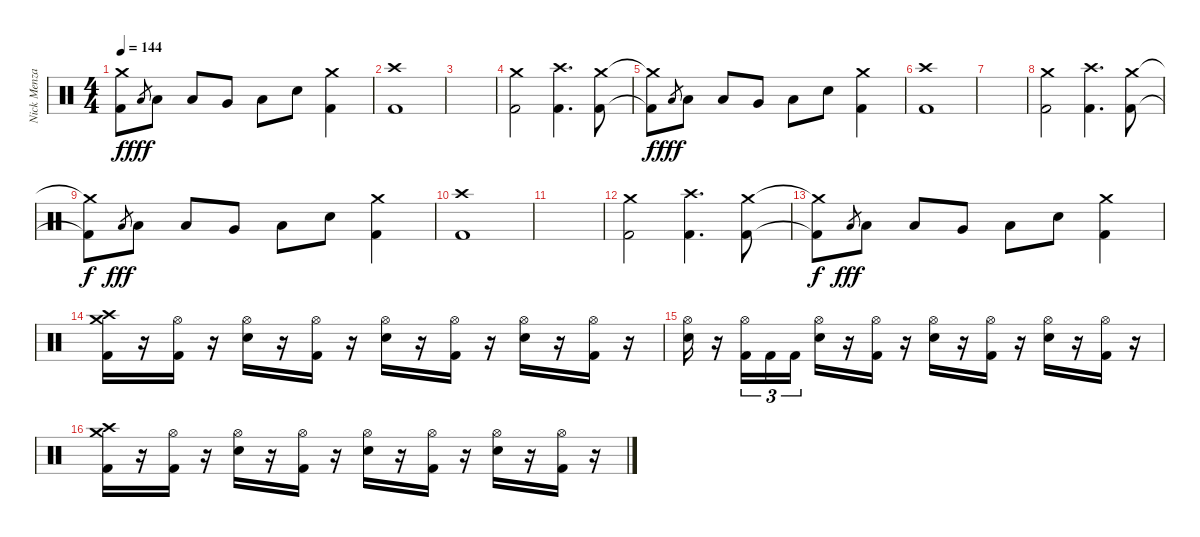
\track ("Nick Menza" "Nick Menza") {instrument percussion}
\staff {score}
\articulation defaults
\ts (4 4)
\tempo 144
\clef neutral
\ks c
("Kick (hit) 2"{t} "Crash medium (hit)"{t}).8{dy f} "Low Tom (hit)".8{gr dy fff} "Low Tom (hit)".8 "Low Tom (hit)".8 "Very Low Tom (hit)".8 "Low Floor Tom (hit)".8 "Electric Snare (hit)".8 ("Kick (hit) 2" "Crash medium (hit)").4 |
("Kick (hit) 2" "Crash high (hit)").1 |
|
("Kick (hit) 2" "Crash medium (hit)").2 ("Kick (hit) 2" "Crash high (hit)").4{d} ("Kick (hit) 2" "Crash medium (hit)").8 |
("Kick (hit) 2"{t} "Crash medium (hit)"{t}).8{dy f} "Low Tom (hit)".8{gr dy fff} "Low Tom (hit)".8 "Low Tom (hit)".8 "Very Low Tom (hit)".8 "Low Floor Tom (hit)".8 "Electric Snare (hit)".8 ("Kick (hit) 2" "Crash medium (hit)").4 |
("Kick (hit) 2" "Crash high (hit)").1 |
|
("Kick (hit) 2" "Crash medium (hit)").2 ("Kick (hit) 2" "Crash high (hit)").4{d} ("Kick (hit) 2" "Crash medium (hit)").8 |
("Kick (hit) 2"{t} "Crash medium (hit)"{t}).8{dy f} "Low Tom (hit)".8{gr dy fff} "Low Tom (hit)".8 "Low Tom (hit)".8 "Very Low Tom (hit)".8 "Low Floor Tom (hit)".8 "Electric Snare (hit)".8 ("Kick (hit) 2" "Crash medium (hit)").4 |
("Kick (hit) 2" "Crash high (hit)").1 |
|
("Kick (hit) 2" "Crash medium (hit)").2 ("Kick (hit) 2" "Crash high (hit)").4{d} ("Kick (hit) 2" "Crash medium (hit)").8 |
("Kick (hit) 2"{t} "Crash medium (hit)"{t}).8{dy f} "Low Tom (hit)".8{gr dy fff} "Low Tom (hit)".8 "Low Tom (hit)".8 "Very Low Tom (hit)".8 "Low Floor Tom (hit)".8 "Electric Snare (hit)".8 ("Kick (hit) 2" "Crash medium (hit)").4 |
("Kick (hit) 2" "Crash high (hit)" "Crash medium (hit)").16 r.16 ("Kick (hit) 2" "Hi-Hat (open)").16 r.16 ("Electric Snare (hit)" "Hi-Hat (open)").16 r.16 ("Kick (hit) 2" "Hi-Hat (open)").16 r.16 ("Electric Snare (hit)" "Hi-Hat (open)").16 r.16 ("Kick (hit) 2" "Hi-Hat (open)").16 r.16 ("Electric Snare (hit)" "Hi-Hat (open)").16 r.16 ("Kick (hit) 2" "Hi-Hat (open)").16 r.16 |
("Electric Snare (hit)" "Hi-Hat (open)").16 r.16 ("Kick (hit) 2" "Hi-Hat (open)").16{tu (3 2)} "Kick (hit) 2".16{tu (3 2)} "Kick (hit) 2".16{tu (3 2)} ("Electric Snare (hit)" "Hi-Hat (open)").16 r.16 ("Kick (hit) 2" "Hi-Hat (open)").16 r.16 ("Electric Snare (hit)" "Hi-Hat (open)").16 r.16 ("Kick (hit) 2" "Hi-Hat (open)").16 r.16 ("Electric Snare (hit)" "Hi-Hat (open)").16 r.16 ("Kick (hit) 2" "Hi-Hat (open)").16 r.16 |
("Kick (hit) 2" "Crash high (hit)" "Crash medium (hit)").16 r.16 ("Kick (hit) 2" "Hi-Hat (open)").16 r.16 ("Electric Snare (hit)" "Hi-Hat (open)").16 r.16 ("Kick (hit) 2" "Hi-Hat (open)").16 r.16 ("Electric Snare (hit)" "Hi-Hat (open)").16 r.16 ("Kick (hit) 2" "Hi-Hat (open)").16 r.16 ("Electric Snare (hit)" "Hi-Hat (open)").16 r.16 ("Kick (hit) 2" "Hi-Hat (open)").16 r.16
